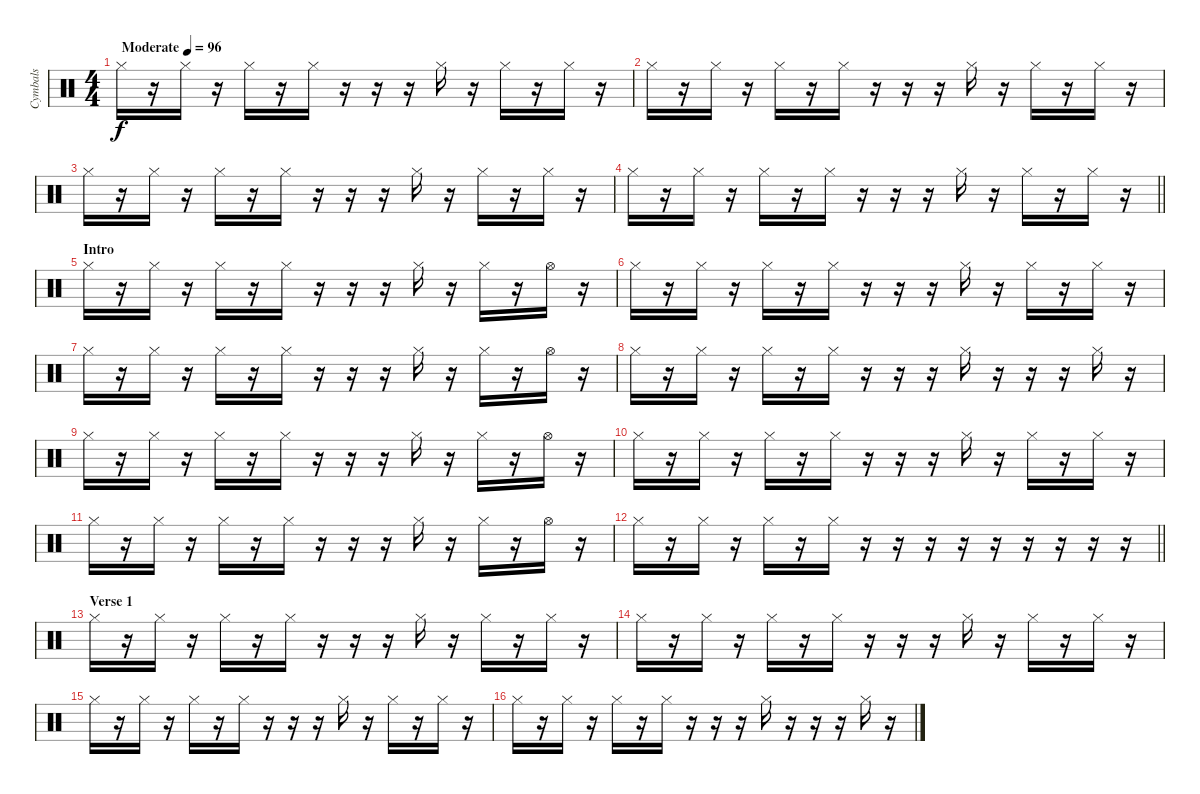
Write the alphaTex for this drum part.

\track ("Cymbals" "Cymbals") {instrument percussion}
\staff {score}
\articulation defaults
\ts (4 4)
\tempo (96 "Moderate")
\clef neutral
\ks c "Hi-Hat (closed)".16{dy f}
r.16 "Hi-Hat (closed)".16 r.16 "Hi-Hat (closed)".16 r.16 "Hi-Hat (closed)".16 r.16 r.16 r.16 "Hi-Hat (closed)".16 r.16 "Hi-Hat (closed)".16 r.16 "Hi-Hat (closed)".16 r.16 |
"Hi-Hat (closed)".16 r.16 "Hi-Hat (closed)".16 r.16 "Hi-Hat (closed)".16 r.16 "Hi-Hat (closed)".16 r.16 r.16 r.16 "Hi-Hat (closed)".16 r.16 "Hi-Hat (closed)".16 r.16 "Hi-Hat (closed)".16 r.16 |
"Hi-Hat (closed)".16 r.16 "Hi-Hat (closed)".16 r.16 "Hi-Hat (closed)".16 r.16 "Hi-Hat (closed)".16 r.16 r.16 r.16 "Hi-Hat (closed)".16 r.16 "Hi-Hat (closed)".16 r.16 "Hi-Hat (closed)".16 r.16 |
\barLineRight lightlight "Hi-Hat (closed)".16
r.16 "Hi-Hat (closed)".16 r.16 "Hi-Hat (closed)".16 r.16 "Hi-Hat (closed)".16 r.16 r.16 r.16 "Hi-Hat (closed)".16 r.16 "Hi-Hat (closed)".16 r.16 "Hi-Hat (closed)".16 r.16 |
\section ("" "Intro")
"Hi-Hat (closed)".16 r.16 "Hi-Hat (closed)".16 r.16 "Hi-Hat (closed)".16 r.16 "Hi-Hat (closed)".16 r.16 r.16 r.16 "Hi-Hat (closed)".16 r.16 "Hi-Hat (closed)".16 r.16 "Hi-Hat (open)".16 r.16 |
"Hi-Hat (closed)".16 r.16 "Hi-Hat (closed)".16 r.16 "Hi-Hat (closed)".16 r.16 "Hi-Hat (closed)".16 r.16 r.16 r.16 "Hi-Hat (closed)".16 r.16 "Hi-Hat (closed)".16 r.16 "Hi-Hat (closed)".16 r.16 |
"Hi-Hat (closed)".16 r.16 "Hi-Hat (closed)".16 r.16 "Hi-Hat (closed)".16 r.16 "Hi-Hat (closed)".16 r.16 r.16 r.16 "Hi-Hat (closed)".16 r.16 "Hi-Hat (closed)".16 r.16 "Hi-Hat (open)".16 r.16 |
"Hi-Hat (closed)".16 r.16 "Hi-Hat (closed)".16 r.16 "Hi-Hat (closed)".16 r.16 "Hi-Hat (closed)".16 r.16 r.16 r.16 "Hi-Hat (closed)".16 r.16 r.16 r.16 "Hi-Hat (closed)".16 r.16 |
"Hi-Hat (closed)".16 r.16 "Hi-Hat (closed)".16 r.16 "Hi-Hat (closed)".16 r.16 "Hi-Hat (closed)".16 r.16 r.16 r.16 "Hi-Hat (closed)".16 r.16 "Hi-Hat (closed)".16 r.16 "Hi-Hat (open)".16 r.16 |
"Hi-Hat (closed)".16 r.16 "Hi-Hat (closed)".16 r.16 "Hi-Hat (closed)".16 r.16 "Hi-Hat (closed)".16 r.16 r.16 r.16 "Hi-Hat (closed)".16 r.16 "Hi-Hat (closed)".16 r.16 "Hi-Hat (closed)".16 r.16 |
"Hi-Hat (closed)".16 r.16 "Hi-Hat (closed)".16 r.16 "Hi-Hat (closed)".16 r.16 "Hi-Hat (closed)".16 r.16 r.16 r.16 "Hi-Hat (closed)".16 r.16 "Hi-Hat (closed)".16 r.16 "Hi-Hat (open)".16 r.16 |
\barLineRight lightlight "Hi-Hat (closed)".16
r.16 "Hi-Hat (closed)".16 r.16 "Hi-Hat (closed)".16 r.16 "Hi-Hat (closed)".16 r.16 r.16 r.16 r.16 r.16 r.16 r.16 r.16 r.16 |
\section ("" "Verse 1")
"Hi-Hat (closed)".16 r.16 "Hi-Hat (closed)".16 r.16 "Hi-Hat (closed)".16 r.16 "Hi-Hat (closed)".16 r.16 r.16 r.16 "Hi-Hat (closed)".16 r.16 "Hi-Hat (closed)".16 r.16 "Hi-Hat (closed)".16 r.16 |
"Hi-Hat (closed)".16 r.16 "Hi-Hat (closed)".16 r.16 "Hi-Hat (closed)".16 r.16 "Hi-Hat (closed)".16 r.16 r.16 r.16 "Hi-Hat (closed)".16 r.16 "Hi-Hat (closed)".16 r.16 "Hi-Hat (closed)".16 r.16 |
"Hi-Hat (closed)".16 r.16 "Hi-Hat (closed)".16 r.16 "Hi-Hat (closed)".16 r.16 "Hi-Hat (closed)".16 r.16 r.16 r.16 "Hi-Hat (closed)".16 r.16 "Hi-Hat (closed)".16 r.16 "Hi-Hat (closed)".16 r.16 |
"Hi-Hat (closed)".16 r.16 "Hi-Hat (closed)".16 r.16 "Hi-Hat (closed)".16 r.16 "Hi-Hat (closed)".16 r.16 r.16 r.16 "Hi-Hat (closed)".16 r.16 r.16 r.16 "Hi-Hat (closed)".16 r.16
